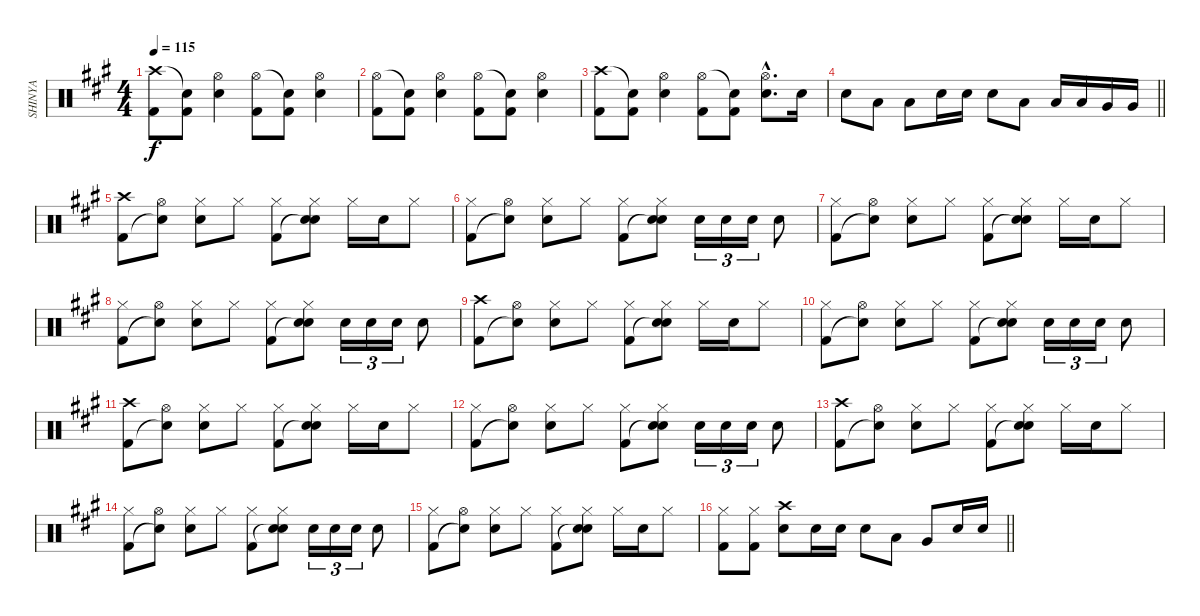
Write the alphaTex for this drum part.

\track ("SHINYA" "SHINYA") {instrument percussion}
\staff {score}
\articulation defaults
\ts (4 4)
\tempo 115
\clef neutral
\ks a
("Crash high (hit)" "Kick (hit) 2").8{dy f} ("Snare (hit)"{t} "Kick (hit) 2").8 ("Hi-Hat (open)" "Electric Snare (hit)").4 ("Hi-Hat (open)" "Kick (hit) 2").8 ("Snare (hit)"{t} "Kick (hit) 2").8 ("Hi-Hat (open)" "Electric Snare (hit)").4 |
("Hi-Hat (open)" "Kick (hit) 2").8 ("Snare (hit)"{t} "Kick (hit) 2").8 ("Hi-Hat (open)" "Electric Snare (hit)").4 ("Hi-Hat (open)" "Kick (hit) 2").8 ("Snare (hit)"{t} "Kick (hit) 2").8 ("Hi-Hat (open)" "Electric Snare (hit)").4 |
("Crash high (hit)" "Kick (hit) 2").8 ("Snare (hit)"{t} "Kick (hit) 2").8 ("Hi-Hat (open)" "Electric Snare (hit)").4 ("Hi-Hat (open)" "Kick (hit) 2").8 ("Snare (hit)"{t} "Kick (hit) 2").8 ("Hi-Hat (open)"{hac} "Electric Snare (hit)"{hac}).8{d} "Electric Snare (hit)".16 |
\barLineRight lightlight "Electric Snare (hit)".8 "Low Tom (hit)".8 "Low Tom (hit)".8 "Electric Snare (hit)".16 "Electric Snare (hit)".16 "Electric Snare (hit)".8 "Low Tom (hit)".8 "Low Tom (hit)".16 "Low Tom (hit)".16 "Very Low Tom (hit)".16 "Very Low Tom (hit)".16
|
("Crash high (hit)" "Kick (hit) 2").8 ("Hi-Hat (open)" "Snare (hit)"{t}).8 ("Hi-Hat (closed)" "Electric Snare (hit)").8 "Hi-Hat (closed)".8 ("Hi-Hat (closed)" "Kick (hit) 2").8 ("Hi-Hat (closed)" "Snare (hit)"{t} "Electric Snare (hit)").8 "Hi-Hat (closed)".16 "Electric Snare (hit)".16 "Hi-Hat (closed)".8 |
("Hi-Hat (closed)" "Kick (hit) 2").8 ("Hi-Hat (open)" "Snare (hit)"{t}).8 ("Hi-Hat (closed)" "Electric Snare (hit)").8 "Hi-Hat (closed)".8 ("Hi-Hat (closed)" "Kick (hit) 2").8 ("Hi-Hat (closed)" "Snare (hit)"{t} "Electric Snare (hit)").8 "Electric Snare (hit)".16{tu (3 2)} "Electric Snare (hit)".16{tu (3 2)} "Electric Snare (hit)".16{tu (3 2)} "Electric Snare (hit)".8 |
("Hi-Hat (closed)" "Kick (hit) 2").8 ("Hi-Hat (open)" "Snare (hit)"{t}).8 ("Hi-Hat (closed)" "Electric Snare (hit)").8 "Hi-Hat (closed)".8 ("Hi-Hat (closed)" "Kick (hit) 2").8 ("Hi-Hat (closed)" "Snare (hit)"{t} "Electric Snare (hit)").8 "Hi-Hat (closed)".16 "Electric Snare (hit)".16 "Hi-Hat (closed)".8 |
("Hi-Hat (closed)" "Kick (hit) 2").8 ("Hi-Hat (open)" "Snare (hit)"{t}).8 ("Hi-Hat (closed)" "Electric Snare (hit)").8 "Hi-Hat (closed)".8 ("Hi-Hat (closed)" "Kick (hit) 2").8 ("Hi-Hat (closed)" "Snare (hit)"{t} "Electric Snare (hit)").8 "Electric Snare (hit)".16{tu (3 2)} "Electric Snare (hit)".16{tu (3 2)} "Electric Snare (hit)".16{tu (3 2)} "Electric Snare (hit)".8 |
("Crash high (hit)" "Kick (hit) 2").8 ("Hi-Hat (open)" "Snare (hit)"{t}).8 ("Hi-Hat (closed)" "Electric Snare (hit)").8 "Hi-Hat (closed)".8 ("Hi-Hat (closed)" "Kick (hit) 2").8 ("Hi-Hat (closed)" "Snare (hit)"{t} "Electric Snare (hit)").8 "Hi-Hat (closed)".16 "Electric Snare (hit)".16 "Hi-Hat (closed)".8 |
("Hi-Hat (closed)" "Kick (hit) 2").8 ("Hi-Hat (open)" "Snare (hit)"{t}).8 ("Hi-Hat (closed)" "Electric Snare (hit)").8 "Hi-Hat (closed)".8 ("Hi-Hat (closed)" "Kick (hit) 2").8 ("Hi-Hat (closed)" "Snare (hit)"{t} "Electric Snare (hit)").8 "Electric Snare (hit)".16{tu (3 2)} "Electric Snare (hit)".16{tu (3 2)} "Electric Snare (hit)".16{tu (3 2)} "Electric Snare (hit)".8 |
("Crash high (hit)" "Kick (hit) 2").8 ("Hi-Hat (open)" "Snare (hit)"{t}).8 ("Hi-Hat (closed)" "Electric Snare (hit)").8 "Hi-Hat (closed)".8 ("Hi-Hat (closed)" "Kick (hit) 2").8 ("Hi-Hat (closed)" "Snare (hit)"{t} "Electric Snare (hit)").8 "Hi-Hat (closed)".16 "Electric Snare (hit)".16 "Hi-Hat (closed)".8 |
("Hi-Hat (closed)" "Kick (hit) 2").8 ("Hi-Hat (open)" "Snare (hit)"{t}).8 ("Hi-Hat (closed)" "Electric Snare (hit)").8 "Hi-Hat (closed)".8 ("Hi-Hat (closed)" "Kick (hit) 2").8 ("Hi-Hat (closed)" "Snare (hit)"{t} "Electric Snare (hit)").8 "Electric Snare (hit)".16{tu (3 2)} "Electric Snare (hit)".16{tu (3 2)} "Electric Snare (hit)".16{tu (3 2)} "Electric Snare (hit)".8 |
("Crash high (hit)" "Kick (hit) 2").8 ("Hi-Hat (open)" "Snare (hit)"{t}).8 ("Hi-Hat (closed)" "Electric Snare (hit)").8 "Hi-Hat (closed)".8 ("Hi-Hat (closed)" "Kick (hit) 2").8 ("Hi-Hat (closed)" "Snare (hit)"{t} "Electric Snare (hit)").8 "Hi-Hat (closed)".16 "Electric Snare (hit)".16 "Hi-Hat (closed)".8 |
("Hi-Hat (closed)" "Kick (hit) 2").8 ("Hi-Hat (open)" "Snare (hit)"{t}).8 ("Hi-Hat (closed)" "Electric Snare (hit)").8 "Hi-Hat (closed)".8 ("Hi-Hat (closed)" "Kick (hit) 2").8 ("Hi-Hat (closed)" "Snare (hit)"{t} "Electric Snare (hit)").8 "Electric Snare (hit)".16{tu (3 2)} "Electric Snare (hit)".16{tu (3 2)} "Electric Snare (hit)".16{tu (3 2)} "Electric Snare (hit)".8 |
("Hi-Hat (closed)" "Kick (hit) 2").8 ("Hi-Hat (open)" "Snare (hit)"{t}).8 ("Hi-Hat (closed)" "Electric Snare (hit)").8 "Hi-Hat (closed)".8 ("Hi-Hat (closed)" "Kick (hit) 2").8 ("Hi-Hat (closed)" "Snare (hit)"{t} "Electric Snare (hit)").8 "Hi-Hat (closed)".16 "Electric Snare (hit)".16 "Hi-Hat (closed)".8 |
\barLineRight lightlight
("Hi-Hat (closed)" "Kick (hit) 2").8 ("Hi-Hat (closed)" "Kick (hit) 2").8 ("Crash high (hit)" "Electric Snare (hit)").8 "Electric Snare (hit)".16 "Electric Snare (hit)".16 "Electric Snare (hit)".8 "Low Tom (hit)".8 "Very Low Tom (hit)".8 "Electric Snare (hit)".16 "Electric Snare (hit)".16
